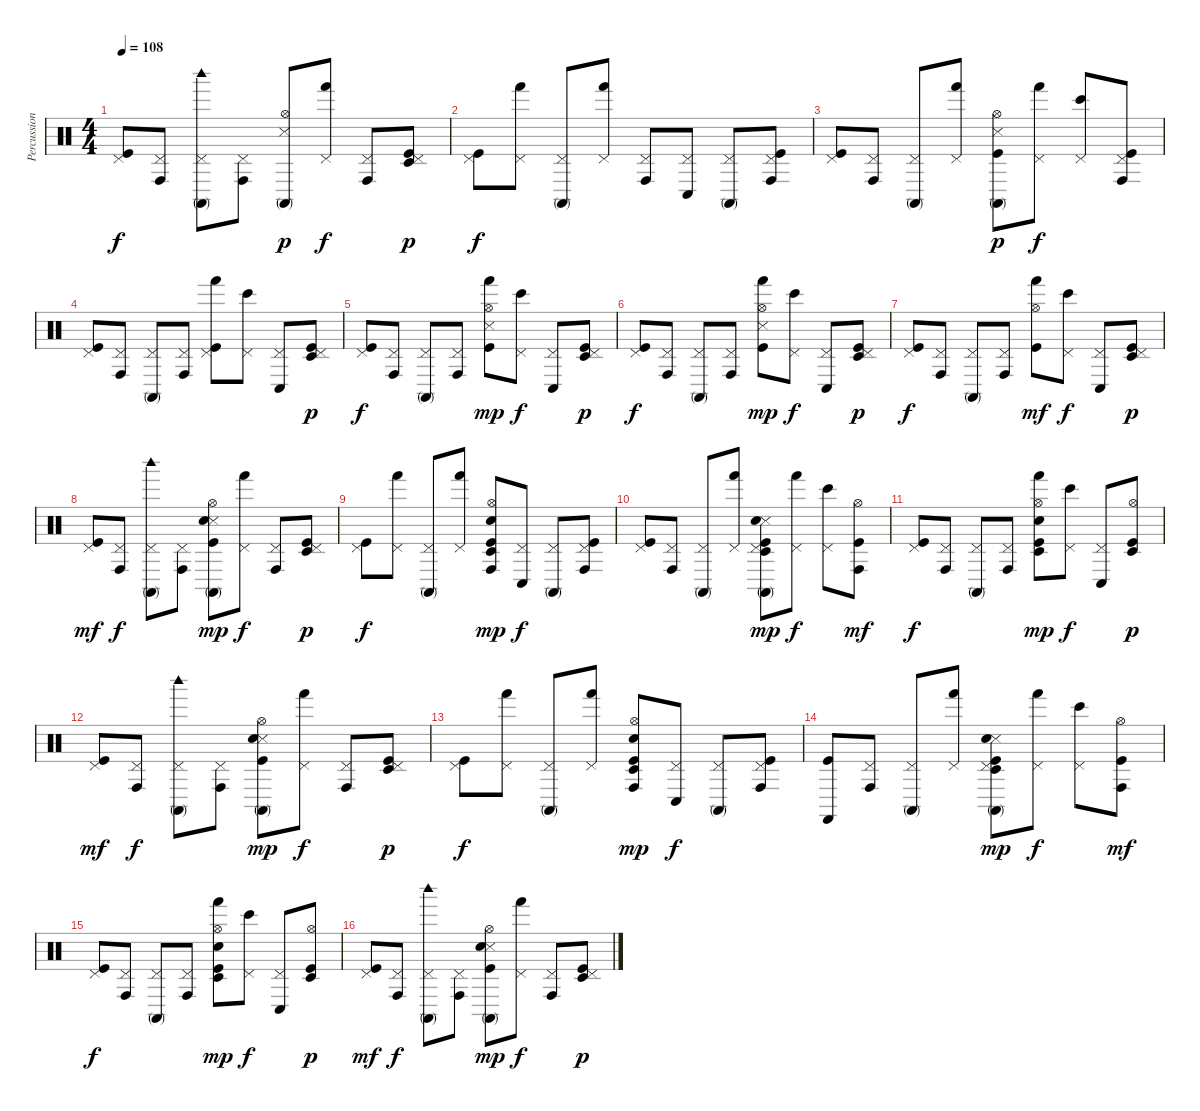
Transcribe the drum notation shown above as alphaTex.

\track ("Percussions" "Percussion") {instrument percussion}
\staff {score}
\articulation defaults
\ts (4 4)
\tempo 108
\clef neutral
\ks c
("Pedal Hi-Hat (hit)" "Kick (hit)").8{dy f} ("Pedal Hi-Hat (hit)" "Conga high (hit)").8 ("Pedal Hi-Hat (hit)" "Conga high (mute)" "Woodblock high (hit)").8 ("Pedal Hi-Hat (hit)" "Conga high (hit)").8 ("Hi-Hat (open)" "Snare (side stick) 3" "Conga high (mute)").8{dy p} ("Pedal Hi-Hat (hit)" "Hand (hit)").8{dy f} ("Pedal Hi-Hat (hit)" "Conga high (hit)").8 ("Pedal Hi-Hat (hit)" "Kick (hit)" "Timbale low (hit)").8{dy p} |
("Pedal Hi-Hat (hit)" "Kick (hit)").8{dy f} ("Pedal Hi-Hat (hit)" "Hand (hit)").8 ("Pedal Hi-Hat (hit)" "Conga high (mute)").8 ("Pedal Hi-Hat (hit)" "Hand (hit)").8 ("Pedal Hi-Hat (hit)" "Conga high (hit)").8 ("Pedal Hi-Hat (hit)" "Conga low (hit)").8 ("Pedal Hi-Hat (hit)" "Conga high (mute)").8 ("Pedal Hi-Hat (hit)" "Kick (hit)" "Conga high (hit)").8 |
("Pedal Hi-Hat (hit)" "Kick (hit)").8 ("Pedal Hi-Hat (hit)" "Conga high (hit)").8 ("Pedal Hi-Hat (hit)" "Conga high (mute)").8 ("Pedal Hi-Hat (hit)" "Hand (hit)").8 ("Hi-Hat (open)" "Conga high (mute)" "Snare (side stick) 3" "Kick (hit)").8{dy p} ("Pedal Hi-Hat (hit)" "Hand (hit)").8{dy f} ("Pedal Hi-Hat (hit)" "Bongo High (hit)").8 ("Pedal Hi-Hat (hit)" "Conga high (hit)" "Kick (hit)").8 |
("Pedal Hi-Hat (hit)" "Kick (hit)").8 ("Pedal Hi-Hat (hit)" "Conga high (hit)").8 ("Pedal Hi-Hat (hit)" "Conga high (mute)").8 ("Pedal Hi-Hat (hit)" "Conga high (hit)").8 ("Pedal Hi-Hat (hit)" "Hand (hit)" "Kick (hit)").8 ("Pedal Hi-Hat (hit)" "Bongo High (hit)").8 ("Pedal Hi-Hat (hit)" "Conga low (hit)").8 ("Pedal Hi-Hat (hit)" "Kick (hit)" "Timbale low (hit)").8{dy p} |
("Pedal Hi-Hat (hit)" "Kick (hit)").8{dy f} ("Pedal Hi-Hat (hit)" "Conga high (hit)").8 ("Pedal Hi-Hat (hit)" "Conga high (mute)").8 ("Pedal Hi-Hat (hit)" "Conga high (hit)").8 ("Hi-Hat (open)" "Hand (hit)" "Snare (side stick) 3" "Kick (hit)").8{dy mp} ("Pedal Hi-Hat (hit)" "Bongo High (hit)").8{dy f} ("Pedal Hi-Hat (hit)" "Conga low (hit)").8 ("Pedal Hi-Hat (hit)" "Kick (hit)" "Timbale low (hit)").8{dy p} |
("Pedal Hi-Hat (hit)" "Kick (hit)").8{dy f} ("Pedal Hi-Hat (hit)" "Conga high (hit)").8 ("Pedal Hi-Hat (hit)" "Conga high (mute)").8 ("Pedal Hi-Hat (hit)" "Conga high (hit)").8 ("Hi-Hat (open)" "Hand (hit)" "Snare (side stick) 3" "Kick (hit)").8{dy mp} ("Pedal Hi-Hat (hit)" "Bongo High (hit)").8{dy f} ("Pedal Hi-Hat (hit)" "Conga low (hit)").8 ("Pedal Hi-Hat (hit)" "Kick (hit)" "Timbale low (hit)").8{dy p} |
("Pedal Hi-Hat (hit)" "Kick (hit)").8{dy f} ("Pedal Hi-Hat (hit)" "Conga high (hit)").8 ("Pedal Hi-Hat (hit)" "Conga high (mute)").8 ("Pedal Hi-Hat (hit)" "Conga high (hit)").8 ("Hi-Hat (open)" "Hand (hit)" "Kick (hit)").8{dy mf} ("Pedal Hi-Hat (hit)" "Bongo High (hit)").8{dy f} ("Pedal Hi-Hat (hit)" "Conga low (hit)").8 ("Pedal Hi-Hat (hit)" "Kick (hit)" "Timbale low (hit)").8{dy p} |
("Pedal Hi-Hat (hit)" "Kick (hit)").8{dy mf} ("Pedal Hi-Hat (hit)" "Conga high (hit)").8{dy f} ("Pedal Hi-Hat (hit)" "Conga high (mute)" "Woodblock high (hit)").8 ("Pedal Hi-Hat (hit)" "Conga high (hit)").8 ("Hi-Hat (open)" "Snare (side stick) 3" "Kick (hit)" "Conga high (mute)" "Snare (hit) 2").8{dy mp} ("Pedal Hi-Hat (hit)" "Hand (hit)").8{dy f} ("Pedal Hi-Hat (hit)" "Conga high (hit)").8 ("Pedal Hi-Hat (hit)" "Kick (hit)" "Timbale low (hit)").8{dy p} |
("Pedal Hi-Hat (hit)" "Kick (hit)").8{dy f} ("Pedal Hi-Hat (hit)" "Hand (hit)").8 ("Pedal Hi-Hat (hit)" "Conga high (mute)").8 ("Pedal Hi-Hat (hit)" "Hand (hit)").8 ("Hi-Hat (open)" "Conga high (hit)" "Kick (hit)" "Snare (hit) 2" "Timbale low (hit)").8{dy mp} ("Pedal Hi-Hat (hit)" "Conga low (hit)").8{dy f} ("Pedal Hi-Hat (hit)" "Conga high (mute)").8 ("Pedal Hi-Hat (hit)" "Kick (hit)" "Conga high (hit)").8 |
("Pedal Hi-Hat (hit)" "Kick (hit)").8 ("Pedal Hi-Hat (hit)" "Conga high (hit)").8 ("Pedal Hi-Hat (hit)" "Conga high (mute)").8 ("Pedal Hi-Hat (hit)" "Hand (hit)").8 ("Pedal Hi-Hat (hit)" "Conga high (mute)" "Snare (side stick) 3" "Kick (hit)" "Snare (hit) 2" "Timbale low (hit)").8{dy mp} ("Pedal Hi-Hat (hit)" "Hand (hit)").8{dy f} ("Pedal Hi-Hat (hit)" "Bongo High (hit)").8 ("Hi-Hat (open)" "Conga high (hit)" "Kick (hit)").8{dy mf} |
("Pedal Hi-Hat (hit)" "Kick (hit)").8{dy f} ("Pedal Hi-Hat (hit)" "Conga high (hit)").8 ("Pedal Hi-Hat (hit)" "Conga high (mute)").8 ("Pedal Hi-Hat (hit)" "Conga high (hit)").8 ("Hi-Hat (open)" "Hand (hit)" "Kick (hit)" "Snare (hit) 2" "Timbale low (hit)").8{dy mp} ("Pedal Hi-Hat (hit)" "Bongo High (hit)").8{dy f} ("Pedal Hi-Hat (hit)" "Conga low (hit)").8 ("Hi-Hat (open)" "Kick (hit)" "Timbale low (hit)").8{dy p} |
("Pedal Hi-Hat (hit)" "Kick (hit)").8{dy mf} ("Pedal Hi-Hat (hit)" "Conga high (hit)").8{dy f} ("Pedal Hi-Hat (hit)" "Conga high (mute)" "Woodblock high (hit)").8 ("Pedal Hi-Hat (hit)" "Conga high (hit)").8 ("Hi-Hat (open)" "Snare (side stick) 3" "Kick (hit)" "Conga high (mute)" "Snare (hit) 2").8{dy mp} ("Pedal Hi-Hat (hit)" "Hand (hit)").8{dy f} ("Pedal Hi-Hat (hit)" "Conga high (hit)").8 ("Pedal Hi-Hat (hit)" "Kick (hit)" "Timbale low (hit)").8{dy p} |
("Pedal Hi-Hat (hit)" "Kick (hit)").8{dy f} ("Pedal Hi-Hat (hit)" "Hand (hit)").8 ("Pedal Hi-Hat (hit)" "Conga high (mute)").8 ("Pedal Hi-Hat (hit)" "Hand (hit)").8 ("Hi-Hat (open)" "Conga high (hit)" "Kick (hit)" "Snare (hit) 2" "Timbale low (hit)").8{dy mp} ("Pedal Hi-Hat (hit)" "Conga low (hit)").8{dy f} ("Pedal Hi-Hat (hit)" "Conga high (mute)").8 ("Pedal Hi-Hat (hit)" "Kick (hit)" "Conga high (hit)").8 |
("Castanets (hit)" "Kick (hit)").8 ("Pedal Hi-Hat (hit)" "Conga high (hit)").8 ("Pedal Hi-Hat (hit)" "Conga high (mute)").8 ("Pedal Hi-Hat (hit)" "Hand (hit)").8 ("Pedal Hi-Hat (hit)" "Conga high (mute)" "Snare (side stick) 3" "Kick (hit)" "Snare (hit) 2" "Timbale low (hit)").8{dy mp} ("Pedal Hi-Hat (hit)" "Hand (hit)").8{dy f} ("Pedal Hi-Hat (hit)" "Bongo High (hit)").8 ("Hi-Hat (open)" "Conga high (hit)" "Kick (hit)").8{dy mf} |
("Pedal Hi-Hat (hit)" "Kick (hit)").8{dy f} ("Pedal Hi-Hat (hit)" "Conga high (hit)").8 ("Pedal Hi-Hat (hit)" "Conga high (mute)").8 ("Pedal Hi-Hat (hit)" "Conga high (hit)").8 ("Hi-Hat (open)" "Hand (hit)" "Kick (hit)" "Snare (hit) 2" "Timbale low (hit)").8{dy mp} ("Pedal Hi-Hat (hit)" "Bongo High (hit)").8{dy f} ("Pedal Hi-Hat (hit)" "Conga low (hit)").8 ("Hi-Hat (open)" "Kick (hit)" "Timbale low (hit)").8{dy p} |
("Pedal Hi-Hat (hit)" "Kick (hit)").8{dy mf} ("Pedal Hi-Hat (hit)" "Conga high (hit)").8{dy f} ("Pedal Hi-Hat (hit)" "Conga high (mute)" "Woodblock high (hit)").8 ("Pedal Hi-Hat (hit)" "Conga high (hit)").8 ("Hi-Hat (open)" "Snare (side stick) 3" "Kick (hit)" "Conga high (mute)" "Snare (hit) 2").8{dy mp} ("Pedal Hi-Hat (hit)" "Hand (hit)").8{dy f} ("Pedal Hi-Hat (hit)" "Conga high (hit)").8 ("Pedal Hi-Hat (hit)" "Kick (hit)" "Timbale low (hit)").8{dy p}
